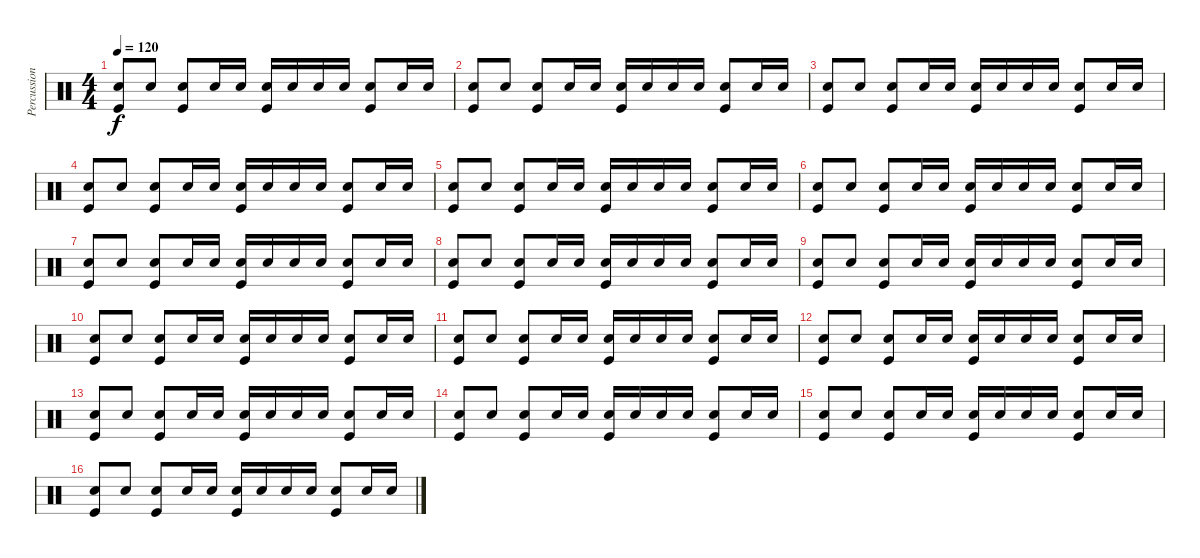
\track ("Percussion" "Percussion") {instrument percussion}
\staff {score}
\articulation defaults
\ts (4 4)
\tempo 120
\clef neutral
\ks c
("Snare (hit) 2" "Kick (hit)").8{dy f} "Snare (hit) 2".8 ("Snare (hit) 2" "Kick (hit)").8 "Snare (hit) 2".16 "Snare (hit) 2".16 ("Snare (hit) 2" "Kick (hit)").16 "Snare (hit) 2".16 "Snare (hit) 2".16 "Snare (hit) 2".16 ("Snare (hit) 2" "Kick (hit)").8 "Snare (hit) 2".16 "Snare (hit) 2".16 |
("Snare (hit) 2" "Kick (hit)").8 "Snare (hit) 2".8 ("Snare (hit) 2" "Kick (hit)").8 "Snare (hit) 2".16 "Snare (hit) 2".16 ("Snare (hit) 2" "Kick (hit)").16 "Snare (hit) 2".16 "Snare (hit) 2".16 "Snare (hit) 2".16 ("Snare (hit) 2" "Kick (hit)").8 "Snare (hit) 2".16 "Snare (hit) 2".16 |
("Snare (hit) 2" "Kick (hit)").8 "Snare (hit) 2".8 ("Snare (hit) 2" "Kick (hit)").8 "Snare (hit) 2".16 "Snare (hit) 2".16 ("Snare (hit) 2" "Kick (hit)").16 "Snare (hit) 2".16 "Snare (hit) 2".16 "Snare (hit) 2".16 ("Snare (hit) 2" "Kick (hit)").8 "Snare (hit) 2".16 "Snare (hit) 2".16 |
("Snare (hit) 2" "Kick (hit)").8 "Snare (hit) 2".8 ("Snare (hit) 2" "Kick (hit)").8 "Snare (hit) 2".16 "Snare (hit) 2".16 ("Snare (hit) 2" "Kick (hit)").16 "Snare (hit) 2".16 "Snare (hit) 2".16 "Snare (hit) 2".16 ("Snare (hit) 2" "Kick (hit)").8 "Snare (hit) 2".16 "Snare (hit) 2".16 |
("Snare (hit) 2" "Kick (hit)").8 "Snare (hit) 2".8 ("Snare (hit) 2" "Kick (hit)").8 "Snare (hit) 2".16 "Snare (hit) 2".16 ("Snare (hit) 2" "Kick (hit)").16 "Snare (hit) 2".16 "Snare (hit) 2".16 "Snare (hit) 2".16 ("Snare (hit) 2" "Kick (hit)").8 "Snare (hit) 2".16 "Snare (hit) 2".16 |
("Snare (hit) 2" "Kick (hit)").8 "Snare (hit) 2".8 ("Snare (hit) 2" "Kick (hit)").8 "Snare (hit) 2".16 "Snare (hit) 2".16 ("Snare (hit) 2" "Kick (hit)").16 "Snare (hit) 2".16 "Snare (hit) 2".16 "Snare (hit) 2".16 ("Snare (hit) 2" "Kick (hit)").8 "Snare (hit) 2".16 "Snare (hit) 2".16 |
("Snare (hit) 2" "Kick (hit)").8 "Snare (hit) 2".8 ("Snare (hit) 2" "Kick (hit)").8 "Snare (hit) 2".16 "Snare (hit) 2".16 ("Snare (hit) 2" "Kick (hit)").16 "Snare (hit) 2".16 "Snare (hit) 2".16 "Snare (hit) 2".16 ("Snare (hit) 2" "Kick (hit)").8 "Snare (hit) 2".16 "Snare (hit) 2".16 |
("Snare (hit) 2" "Kick (hit)").8 "Snare (hit) 2".8 ("Snare (hit) 2" "Kick (hit)").8 "Snare (hit) 2".16 "Snare (hit) 2".16 ("Snare (hit) 2" "Kick (hit)").16 "Snare (hit) 2".16 "Snare (hit) 2".16 "Snare (hit) 2".16 ("Snare (hit) 2" "Kick (hit)").8 "Snare (hit) 2".16 "Snare (hit) 2".16 |
("Snare (hit) 2" "Kick (hit)").8 "Snare (hit) 2".8 ("Snare (hit) 2" "Kick (hit)").8 "Snare (hit) 2".16 "Snare (hit) 2".16 ("Snare (hit) 2" "Kick (hit)").16 "Snare (hit) 2".16 "Snare (hit) 2".16 "Snare (hit) 2".16 ("Snare (hit) 2" "Kick (hit)").8 "Snare (hit) 2".16 "Snare (hit) 2".16 |
("Snare (hit) 2" "Kick (hit)").8 "Snare (hit) 2".8 ("Snare (hit) 2" "Kick (hit)").8 "Snare (hit) 2".16 "Snare (hit) 2".16 ("Snare (hit) 2" "Kick (hit)").16 "Snare (hit) 2".16 "Snare (hit) 2".16 "Snare (hit) 2".16 ("Snare (hit) 2" "Kick (hit)").8 "Snare (hit) 2".16 "Snare (hit) 2".16 |
("Snare (hit) 2" "Kick (hit)").8 "Snare (hit) 2".8 ("Snare (hit) 2" "Kick (hit)").8 "Snare (hit) 2".16 "Snare (hit) 2".16 ("Snare (hit) 2" "Kick (hit)").16 "Snare (hit) 2".16 "Snare (hit) 2".16 "Snare (hit) 2".16 ("Snare (hit) 2" "Kick (hit)").8 "Snare (hit) 2".16 "Snare (hit) 2".16 |
("Snare (hit) 2" "Kick (hit)").8 "Snare (hit) 2".8 ("Snare (hit) 2" "Kick (hit)").8 "Snare (hit) 2".16 "Snare (hit) 2".16 ("Snare (hit) 2" "Kick (hit)").16 "Snare (hit) 2".16 "Snare (hit) 2".16 "Snare (hit) 2".16 ("Snare (hit) 2" "Kick (hit)").8 "Snare (hit) 2".16 "Snare (hit) 2".16 |
("Snare (hit) 2" "Kick (hit)").8 "Snare (hit) 2".8 ("Snare (hit) 2" "Kick (hit)").8 "Snare (hit) 2".16 "Snare (hit) 2".16 ("Snare (hit) 2" "Kick (hit)").16 "Snare (hit) 2".16 "Snare (hit) 2".16 "Snare (hit) 2".16 ("Snare (hit) 2" "Kick (hit)").8 "Snare (hit) 2".16 "Snare (hit) 2".16 |
("Snare (hit) 2" "Kick (hit)").8 "Snare (hit) 2".8 ("Snare (hit) 2" "Kick (hit)").8 "Snare (hit) 2".16 "Snare (hit) 2".16 ("Snare (hit) 2" "Kick (hit)").16 "Snare (hit) 2".16 "Snare (hit) 2".16 "Snare (hit) 2".16 ("Snare (hit) 2" "Kick (hit)").8 "Snare (hit) 2".16 "Snare (hit) 2".16 |
("Snare (hit) 2" "Kick (hit)").8 "Snare (hit) 2".8 ("Snare (hit) 2" "Kick (hit)").8 "Snare (hit) 2".16 "Snare (hit) 2".16 ("Snare (hit) 2" "Kick (hit)").16 "Snare (hit) 2".16 "Snare (hit) 2".16 "Snare (hit) 2".16 ("Snare (hit) 2" "Kick (hit)").8 "Snare (hit) 2".16 "Snare (hit) 2".16 |
("Snare (hit) 2" "Kick (hit)").8 "Snare (hit) 2".8 ("Snare (hit) 2" "Kick (hit)").8 "Snare (hit) 2".16 "Snare (hit) 2".16 ("Snare (hit) 2" "Kick (hit)").16 "Snare (hit) 2".16 "Snare (hit) 2".16 "Snare (hit) 2".16 ("Snare (hit) 2" "Kick (hit)").8 "Snare (hit) 2".16 "Snare (hit) 2".16
